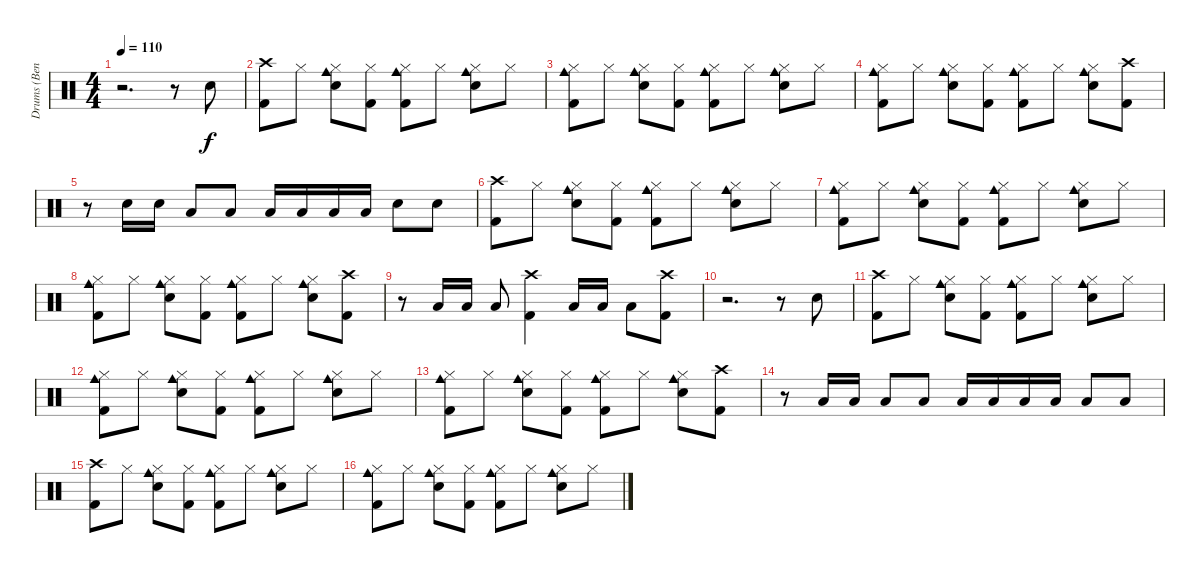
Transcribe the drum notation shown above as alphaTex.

\track ("Drums (Bengerg)" "Drums (Ben") {instrument percussion}
\staff {score}
\articulation defaults
\ts (4 4)
\tempo 110
\clef neutral
\ks c
r.2{d dy f} r.8 "Electric Snare (hit)".8 |
("Crash high (hit)" "Kick (hit) 2").8 "Hi-Hat (closed)".8 ("Hi-Hat (closed)" "Cowbell medium (hit)" "Electric Snare (hit)").8 ("Hi-Hat (closed)" "Kick (hit) 2").8 ("Hi-Hat (closed)" "Cowbell medium (hit)" "Kick (hit) 2").8 "Hi-Hat (closed)".8 ("Hi-Hat (closed)" "Cowbell medium (hit)" "Electric Snare (hit)").8 "Hi-Hat (closed)".8 |
("Hi-Hat (closed)" "Cowbell medium (hit)" "Kick (hit) 2").8 "Hi-Hat (closed)".8 ("Hi-Hat (closed)" "Cowbell medium (hit)" "Electric Snare (hit)").8 ("Hi-Hat (closed)" "Kick (hit) 2").8 ("Hi-Hat (closed)" "Cowbell medium (hit)" "Kick (hit) 2").8 "Hi-Hat (closed)".8 ("Hi-Hat (closed)" "Cowbell medium (hit)" "Electric Snare (hit)").8 "Hi-Hat (closed)".8 |
("Hi-Hat (closed)" "Cowbell medium (hit)" "Kick (hit) 2").8 "Hi-Hat (closed)".8 ("Hi-Hat (closed)" "Cowbell medium (hit)" "Electric Snare (hit)").8 ("Hi-Hat (closed)" "Kick (hit) 2").8 ("Hi-Hat (closed)" "Cowbell medium (hit)" "Kick (hit) 2").8 "Hi-Hat (closed)".8 ("Hi-Hat (closed)" "Cowbell medium (hit)" "Electric Snare (hit)").8 ("Crash high (hit)" "Kick (hit) 2").8 |
r.8 "Electric Snare (hit)".16 "Electric Snare (hit)".16 "Low Tom (hit)".8 "Low Tom (hit)".8 "Low Tom (hit)".16 "Low Tom (hit)".16 "Low Tom (hit)".16 "Low Tom (hit)".16 "Electric Snare (hit)".8 "Electric Snare (hit)".8 |
("Crash high (hit)" "Kick (hit) 2").8 "Hi-Hat (closed)".8 ("Hi-Hat (closed)" "Cowbell medium (hit)" "Electric Snare (hit)").8 ("Hi-Hat (closed)" "Kick (hit) 2").8 ("Hi-Hat (closed)" "Cowbell medium (hit)" "Kick (hit) 2").8 "Hi-Hat (closed)".8 ("Hi-Hat (closed)" "Cowbell medium (hit)" "Electric Snare (hit)").8 "Hi-Hat (closed)".8 |
("Hi-Hat (closed)" "Cowbell medium (hit)" "Kick (hit) 2").8 "Hi-Hat (closed)".8 ("Hi-Hat (closed)" "Cowbell medium (hit)" "Electric Snare (hit)").8 ("Hi-Hat (closed)" "Kick (hit) 2").8 ("Hi-Hat (closed)" "Cowbell medium (hit)" "Kick (hit) 2").8 "Hi-Hat (closed)".8 ("Hi-Hat (closed)" "Cowbell medium (hit)" "Electric Snare (hit)").8 "Hi-Hat (closed)".8 |
("Hi-Hat (closed)" "Cowbell medium (hit)" "Kick (hit) 2").8 "Hi-Hat (closed)".8 ("Hi-Hat (closed)" "Cowbell medium (hit)" "Electric Snare (hit)").8 ("Hi-Hat (closed)" "Kick (hit) 2").8 ("Hi-Hat (closed)" "Cowbell medium (hit)" "Kick (hit) 2").8 "Hi-Hat (closed)".8 ("Hi-Hat (closed)" "Cowbell medium (hit)" "Electric Snare (hit)").8 ("Crash high (hit)" "Kick (hit) 2").8 |
r.8 "Low Tom (hit)".16 "Low Tom (hit)".16 "Low Tom (hit)".8 ("Crash high (hit)" "Kick (hit) 2").4 "Low Tom (hit)".16 "Low Tom (hit)".16 "Low Tom (hit)".8 ("Crash high (hit)" "Kick (hit) 2").8 |
r.2{d} r.8 "Electric Snare (hit)".8 |
("Crash high (hit)" "Kick (hit) 2").8 "Hi-Hat (closed)".8 ("Hi-Hat (closed)" "Cowbell medium (hit)" "Electric Snare (hit)").8 ("Hi-Hat (closed)" "Kick (hit) 2").8 ("Hi-Hat (closed)" "Cowbell medium (hit)" "Kick (hit) 2").8 "Hi-Hat (closed)".8 ("Hi-Hat (closed)" "Cowbell medium (hit)" "Electric Snare (hit)").8 "Hi-Hat (closed)".8 |
("Hi-Hat (closed)" "Cowbell medium (hit)" "Kick (hit) 2").8 "Hi-Hat (closed)".8 ("Hi-Hat (closed)" "Cowbell medium (hit)" "Electric Snare (hit)").8 ("Hi-Hat (closed)" "Kick (hit) 2").8 ("Hi-Hat (closed)" "Cowbell medium (hit)" "Kick (hit) 2").8 "Hi-Hat (closed)".8 ("Hi-Hat (closed)" "Cowbell medium (hit)" "Electric Snare (hit)").8 "Hi-Hat (closed)".8 |
("Hi-Hat (closed)" "Cowbell medium (hit)" "Kick (hit) 2").8 "Hi-Hat (closed)".8 ("Hi-Hat (closed)" "Cowbell medium (hit)" "Electric Snare (hit)").8 ("Hi-Hat (closed)" "Kick (hit) 2").8 ("Hi-Hat (closed)" "Cowbell medium (hit)" "Kick (hit) 2").8 "Hi-Hat (closed)".8 ("Hi-Hat (closed)" "Cowbell medium (hit)" "Electric Snare (hit)").8 ("Crash high (hit)" "Kick (hit) 2").8 |
r.8 "Low Tom (hit)".16 "Low Tom (hit)".16 "Low Tom (hit)".8 "Low Tom (hit)".8 "Low Tom (hit)".16 "Low Tom (hit)".16 "Low Tom (hit)".16 "Low Tom (hit)".16 "Low Tom (hit)".8 "Low Tom (hit)".8 |
("Crash high (hit)" "Kick (hit) 2").8 "Hi-Hat (closed)".8 ("Hi-Hat (closed)" "Cowbell medium (hit)" "Electric Snare (hit)").8 ("Hi-Hat (closed)" "Kick (hit) 2").8 ("Hi-Hat (closed)" "Cowbell medium (hit)" "Kick (hit) 2").8 "Hi-Hat (closed)".8 ("Hi-Hat (closed)" "Cowbell medium (hit)" "Electric Snare (hit)").8 "Hi-Hat (closed)".8 |
("Hi-Hat (closed)" "Cowbell medium (hit)" "Kick (hit) 2").8 "Hi-Hat (closed)".8 ("Hi-Hat (closed)" "Cowbell medium (hit)" "Electric Snare (hit)").8 ("Hi-Hat (closed)" "Kick (hit) 2").8 ("Hi-Hat (closed)" "Cowbell medium (hit)" "Kick (hit) 2").8 "Hi-Hat (closed)".8 ("Hi-Hat (closed)" "Cowbell medium (hit)" "Electric Snare (hit)").8 "Hi-Hat (closed)".8
